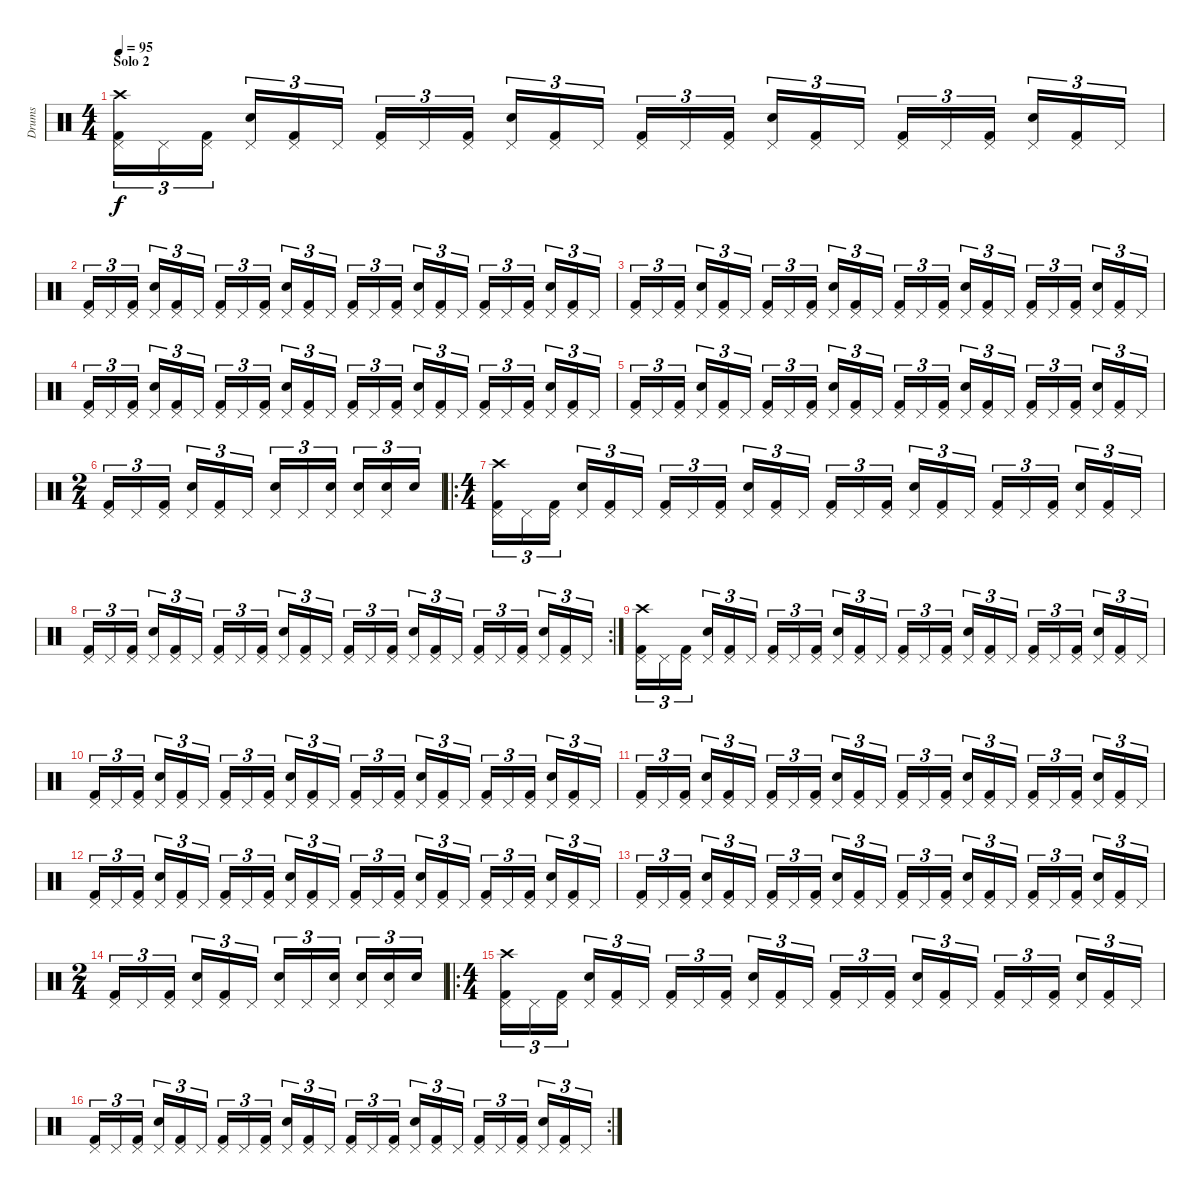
\track ("Drums" "Drums") {instrument percussion}
\staff {score}
\articulation defaults
\ts (4 4)
\section ("" "Solo 2")
\tempo 95
\clef neutral
\ks c
("Kick (hit) 2" "Pedal Hi-Hat (hit)" "Crash high (hit)").16{tu (3 2) dy f} "Pedal Hi-Hat (hit)".16{tu (3 2)} ("Kick (hit) 2" "Pedal Hi-Hat (hit)").16{tu (3 2)} ("Snare (hit) 2" "Pedal Hi-Hat (hit)").16{tu (3 2)} ("Kick (hit) 2" "Pedal Hi-Hat (hit)").16{tu (3 2)} "Pedal Hi-Hat (hit)".16{tu (3 2)} ("Kick (hit) 2" "Pedal Hi-Hat (hit)").16{tu (3 2)} "Pedal Hi-Hat (hit)".16{tu (3 2)} ("Kick (hit) 2" "Pedal Hi-Hat (hit)").16{tu (3 2)} ("Snare (hit) 2" "Pedal Hi-Hat (hit)").16{tu (3 2)} ("Kick (hit) 2" "Pedal Hi-Hat (hit)").16{tu (3 2)} "Pedal Hi-Hat (hit)".16{tu (3 2)} ("Kick (hit) 2" "Pedal Hi-Hat (hit)").16{tu (3 2)} "Pedal Hi-Hat (hit)".16{tu (3 2)} ("Kick (hit) 2" "Pedal Hi-Hat (hit)").16{tu (3 2)} ("Snare (hit) 2" "Pedal Hi-Hat (hit)").16{tu (3 2)} ("Kick (hit) 2" "Pedal Hi-Hat (hit)").16{tu (3 2)} "Pedal Hi-Hat (hit)".16{tu (3 2)} ("Kick (hit) 2" "Pedal Hi-Hat (hit)").16{tu (3 2)} "Pedal Hi-Hat (hit)".16{tu (3 2)} ("Kick (hit) 2" "Pedal Hi-Hat (hit)").16{tu (3 2)} ("Snare (hit) 2" "Pedal Hi-Hat (hit)").16{tu (3 2)} ("Kick (hit) 2" "Pedal Hi-Hat (hit)").16{tu (3 2)} "Pedal Hi-Hat (hit)".16{tu (3 2)} |
("Kick (hit) 2" "Pedal Hi-Hat (hit)").16{tu (3 2)} "Pedal Hi-Hat (hit)".16{tu (3 2)} ("Kick (hit) 2" "Pedal Hi-Hat (hit)").16{tu (3 2)} ("Snare (hit) 2" "Pedal Hi-Hat (hit)").16{tu (3 2)} ("Kick (hit) 2" "Pedal Hi-Hat (hit)").16{tu (3 2)} "Pedal Hi-Hat (hit)".16{tu (3 2)} ("Kick (hit) 2" "Pedal Hi-Hat (hit)").16{tu (3 2)} "Pedal Hi-Hat (hit)".16{tu (3 2)} ("Kick (hit) 2" "Pedal Hi-Hat (hit)").16{tu (3 2)} ("Snare (hit) 2" "Pedal Hi-Hat (hit)").16{tu (3 2)} ("Kick (hit) 2" "Pedal Hi-Hat (hit)").16{tu (3 2)} "Pedal Hi-Hat (hit)".16{tu (3 2)} ("Kick (hit) 2" "Pedal Hi-Hat (hit)").16{tu (3 2)} "Pedal Hi-Hat (hit)".16{tu (3 2)} ("Kick (hit) 2" "Pedal Hi-Hat (hit)").16{tu (3 2)} ("Snare (hit) 2" "Pedal Hi-Hat (hit)").16{tu (3 2)} ("Kick (hit) 2" "Pedal Hi-Hat (hit)").16{tu (3 2)} "Pedal Hi-Hat (hit)".16{tu (3 2)} ("Kick (hit) 2" "Pedal Hi-Hat (hit)").16{tu (3 2)} "Pedal Hi-Hat (hit)".16{tu (3 2)} ("Kick (hit) 2" "Pedal Hi-Hat (hit)").16{tu (3 2)} ("Snare (hit) 2" "Pedal Hi-Hat (hit)").16{tu (3 2)} ("Kick (hit) 2" "Pedal Hi-Hat (hit)").16{tu (3 2)} "Pedal Hi-Hat (hit)".16{tu (3 2)} |
("Kick (hit) 2" "Pedal Hi-Hat (hit)").16{tu (3 2)} "Pedal Hi-Hat (hit)".16{tu (3 2)} ("Kick (hit) 2" "Pedal Hi-Hat (hit)").16{tu (3 2)} ("Snare (hit) 2" "Pedal Hi-Hat (hit)").16{tu (3 2)} ("Kick (hit) 2" "Pedal Hi-Hat (hit)").16{tu (3 2)} "Pedal Hi-Hat (hit)".16{tu (3 2)} ("Kick (hit) 2" "Pedal Hi-Hat (hit)").16{tu (3 2)} "Pedal Hi-Hat (hit)".16{tu (3 2)} ("Kick (hit) 2" "Pedal Hi-Hat (hit)").16{tu (3 2)} ("Snare (hit) 2" "Pedal Hi-Hat (hit)").16{tu (3 2)} ("Kick (hit) 2" "Pedal Hi-Hat (hit)").16{tu (3 2)} "Pedal Hi-Hat (hit)".16{tu (3 2)} ("Kick (hit) 2" "Pedal Hi-Hat (hit)").16{tu (3 2)} "Pedal Hi-Hat (hit)".16{tu (3 2)} ("Kick (hit) 2" "Pedal Hi-Hat (hit)").16{tu (3 2)} ("Snare (hit) 2" "Pedal Hi-Hat (hit)").16{tu (3 2)} ("Kick (hit) 2" "Pedal Hi-Hat (hit)").16{tu (3 2)} "Pedal Hi-Hat (hit)".16{tu (3 2)} ("Kick (hit) 2" "Pedal Hi-Hat (hit)").16{tu (3 2)} "Pedal Hi-Hat (hit)".16{tu (3 2)} ("Kick (hit) 2" "Pedal Hi-Hat (hit)").16{tu (3 2)} ("Snare (hit) 2" "Pedal Hi-Hat (hit)").16{tu (3 2)} ("Kick (hit) 2" "Pedal Hi-Hat (hit)").16{tu (3 2)} "Pedal Hi-Hat (hit)".16{tu (3 2)} |
("Kick (hit) 2" "Pedal Hi-Hat (hit)").16{tu (3 2)} "Pedal Hi-Hat (hit)".16{tu (3 2)} ("Kick (hit) 2" "Pedal Hi-Hat (hit)").16{tu (3 2)} ("Snare (hit) 2" "Pedal Hi-Hat (hit)").16{tu (3 2)} ("Kick (hit) 2" "Pedal Hi-Hat (hit)").16{tu (3 2)} "Pedal Hi-Hat (hit)".16{tu (3 2)} ("Kick (hit) 2" "Pedal Hi-Hat (hit)").16{tu (3 2)} "Pedal Hi-Hat (hit)".16{tu (3 2)} ("Kick (hit) 2" "Pedal Hi-Hat (hit)").16{tu (3 2)} ("Snare (hit) 2" "Pedal Hi-Hat (hit)").16{tu (3 2)} ("Kick (hit) 2" "Pedal Hi-Hat (hit)").16{tu (3 2)} "Pedal Hi-Hat (hit)".16{tu (3 2)} ("Kick (hit) 2" "Pedal Hi-Hat (hit)").16{tu (3 2)} "Pedal Hi-Hat (hit)".16{tu (3 2)} ("Kick (hit) 2" "Pedal Hi-Hat (hit)").16{tu (3 2)} ("Snare (hit) 2" "Pedal Hi-Hat (hit)").16{tu (3 2)} ("Kick (hit) 2" "Pedal Hi-Hat (hit)").16{tu (3 2)} "Pedal Hi-Hat (hit)".16{tu (3 2)} ("Kick (hit) 2" "Pedal Hi-Hat (hit)").16{tu (3 2)} "Pedal Hi-Hat (hit)".16{tu (3 2)} ("Kick (hit) 2" "Pedal Hi-Hat (hit)").16{tu (3 2)} ("Snare (hit) 2" "Pedal Hi-Hat (hit)").16{tu (3 2)} ("Kick (hit) 2" "Pedal Hi-Hat (hit)").16{tu (3 2)} "Pedal Hi-Hat (hit)".16{tu (3 2)} |
("Kick (hit) 2" "Pedal Hi-Hat (hit)").16{tu (3 2)} "Pedal Hi-Hat (hit)".16{tu (3 2)} ("Kick (hit) 2" "Pedal Hi-Hat (hit)").16{tu (3 2)} ("Snare (hit) 2" "Pedal Hi-Hat (hit)").16{tu (3 2)} ("Kick (hit) 2" "Pedal Hi-Hat (hit)").16{tu (3 2)} "Pedal Hi-Hat (hit)".16{tu (3 2)} ("Kick (hit) 2" "Pedal Hi-Hat (hit)").16{tu (3 2)} "Pedal Hi-Hat (hit)".16{tu (3 2)} ("Kick (hit) 2" "Pedal Hi-Hat (hit)").16{tu (3 2)} ("Snare (hit) 2" "Pedal Hi-Hat (hit)").16{tu (3 2)} ("Kick (hit) 2" "Pedal Hi-Hat (hit)").16{tu (3 2)} "Pedal Hi-Hat (hit)".16{tu (3 2)} ("Kick (hit) 2" "Pedal Hi-Hat (hit)").16{tu (3 2)} "Pedal Hi-Hat (hit)".16{tu (3 2)} ("Kick (hit) 2" "Pedal Hi-Hat (hit)").16{tu (3 2)} ("Snare (hit) 2" "Pedal Hi-Hat (hit)").16{tu (3 2)} ("Kick (hit) 2" "Pedal Hi-Hat (hit)").16{tu (3 2)} "Pedal Hi-Hat (hit)".16{tu (3 2)} ("Kick (hit) 2" "Pedal Hi-Hat (hit)").16{tu (3 2)} "Pedal Hi-Hat (hit)".16{tu (3 2)} ("Kick (hit) 2" "Pedal Hi-Hat (hit)").16{tu (3 2)} ("Snare (hit) 2" "Pedal Hi-Hat (hit)").16{tu (3 2)} ("Kick (hit) 2" "Pedal Hi-Hat (hit)").16{tu (3 2)} "Pedal Hi-Hat (hit)".16{tu (3 2)} |
\ts (2 4)
("Kick (hit) 2" "Pedal Hi-Hat (hit)").16{tu (3 2)} "Pedal Hi-Hat (hit)".16{tu (3 2)} ("Kick (hit) 2" "Pedal Hi-Hat (hit)").16{tu (3 2)} ("Snare (hit) 2" "Pedal Hi-Hat (hit)").16{tu (3 2)} ("Kick (hit) 2" "Pedal Hi-Hat (hit)").16{tu (3 2)} "Pedal Hi-Hat (hit)".16{tu (3 2)} ("Snare (hit) 2" "Pedal Hi-Hat (hit)").16{tu (3 2)} "Pedal Hi-Hat (hit)".16{tu (3 2)} ("Snare (hit) 2" "Pedal Hi-Hat (hit)").16{tu (3 2)} ("Snare (hit) 2" "Pedal Hi-Hat (hit)").16{tu (3 2)} ("Snare (hit) 2" "Pedal Hi-Hat (hit)").16{tu (3 2)} "Snare (hit) 2".16{tu (3 2)} |
\ro
\ts (4 4)
("Kick (hit) 2" "Pedal Hi-Hat (hit)" "Crash high (hit)").16{tu (3 2)} "Pedal Hi-Hat (hit)".16{tu (3 2)} ("Kick (hit) 2" "Pedal Hi-Hat (hit)").16{tu (3 2)} ("Snare (hit) 2" "Pedal Hi-Hat (hit)").16{tu (3 2)} ("Kick (hit) 2" "Pedal Hi-Hat (hit)").16{tu (3 2)} "Pedal Hi-Hat (hit)".16{tu (3 2)} ("Kick (hit) 2" "Pedal Hi-Hat (hit)").16{tu (3 2)} "Pedal Hi-Hat (hit)".16{tu (3 2)} ("Kick (hit) 2" "Pedal Hi-Hat (hit)").16{tu (3 2)} ("Snare (hit) 2" "Pedal Hi-Hat (hit)").16{tu (3 2)} ("Kick (hit) 2" "Pedal Hi-Hat (hit)").16{tu (3 2)} "Pedal Hi-Hat (hit)".16{tu (3 2)} ("Kick (hit) 2" "Pedal Hi-Hat (hit)").16{tu (3 2)} "Pedal Hi-Hat (hit)".16{tu (3 2)} ("Kick (hit) 2" "Pedal Hi-Hat (hit)").16{tu (3 2)} ("Snare (hit) 2" "Pedal Hi-Hat (hit)").16{tu (3 2)} ("Kick (hit) 2" "Pedal Hi-Hat (hit)").16{tu (3 2)} "Pedal Hi-Hat (hit)".16{tu (3 2)} ("Kick (hit) 2" "Pedal Hi-Hat (hit)").16{tu (3 2)} "Pedal Hi-Hat (hit)".16{tu (3 2)} ("Kick (hit) 2" "Pedal Hi-Hat (hit)").16{tu (3 2)} ("Snare (hit) 2" "Pedal Hi-Hat (hit)").16{tu (3 2)} ("Kick (hit) 2" "Pedal Hi-Hat (hit)").16{tu (3 2)} "Pedal Hi-Hat (hit)".16{tu (3 2)} |
\rc 2
("Kick (hit) 2" "Pedal Hi-Hat (hit)").16{tu (3 2)} "Pedal Hi-Hat (hit)".16{tu (3 2)} ("Kick (hit) 2" "Pedal Hi-Hat (hit)").16{tu (3 2)} ("Snare (hit) 2" "Pedal Hi-Hat (hit)").16{tu (3 2)} ("Kick (hit) 2" "Pedal Hi-Hat (hit)").16{tu (3 2)} "Pedal Hi-Hat (hit)".16{tu (3 2)} ("Kick (hit) 2" "Pedal Hi-Hat (hit)").16{tu (3 2)} "Pedal Hi-Hat (hit)".16{tu (3 2)} ("Kick (hit) 2" "Pedal Hi-Hat (hit)").16{tu (3 2)} ("Snare (hit) 2" "Pedal Hi-Hat (hit)").16{tu (3 2)} ("Kick (hit) 2" "Pedal Hi-Hat (hit)").16{tu (3 2)} "Pedal Hi-Hat (hit)".16{tu (3 2)} ("Kick (hit) 2" "Pedal Hi-Hat (hit)").16{tu (3 2)} "Pedal Hi-Hat (hit)".16{tu (3 2)} ("Kick (hit) 2" "Pedal Hi-Hat (hit)").16{tu (3 2)} ("Snare (hit) 2" "Pedal Hi-Hat (hit)").16{tu (3 2)} ("Kick (hit) 2" "Pedal Hi-Hat (hit)").16{tu (3 2)} "Pedal Hi-Hat (hit)".16{tu (3 2)} ("Kick (hit) 2" "Pedal Hi-Hat (hit)").16{tu (3 2)} "Pedal Hi-Hat (hit)".16{tu (3 2)} ("Kick (hit) 2" "Pedal Hi-Hat (hit)").16{tu (3 2)} ("Snare (hit) 2" "Pedal Hi-Hat (hit)").16{tu (3 2)} ("Kick (hit) 2" "Pedal Hi-Hat (hit)").16{tu (3 2)} "Pedal Hi-Hat (hit)".16{tu (3 2)} |
("Kick (hit) 2" "Pedal Hi-Hat (hit)" "Crash high (hit)").16{tu (3 2)} "Pedal Hi-Hat (hit)".16{tu (3 2)} ("Kick (hit) 2" "Pedal Hi-Hat (hit)").16{tu (3 2)} ("Snare (hit) 2" "Pedal Hi-Hat (hit)").16{tu (3 2)} ("Kick (hit) 2" "Pedal Hi-Hat (hit)").16{tu (3 2)} "Pedal Hi-Hat (hit)".16{tu (3 2)} ("Kick (hit) 2" "Pedal Hi-Hat (hit)").16{tu (3 2)} "Pedal Hi-Hat (hit)".16{tu (3 2)} ("Kick (hit) 2" "Pedal Hi-Hat (hit)").16{tu (3 2)} ("Snare (hit) 2" "Pedal Hi-Hat (hit)").16{tu (3 2)} ("Kick (hit) 2" "Pedal Hi-Hat (hit)").16{tu (3 2)} "Pedal Hi-Hat (hit)".16{tu (3 2)} ("Kick (hit) 2" "Pedal Hi-Hat (hit)").16{tu (3 2)} "Pedal Hi-Hat (hit)".16{tu (3 2)} ("Kick (hit) 2" "Pedal Hi-Hat (hit)").16{tu (3 2)} ("Snare (hit) 2" "Pedal Hi-Hat (hit)").16{tu (3 2)} ("Kick (hit) 2" "Pedal Hi-Hat (hit)").16{tu (3 2)} "Pedal Hi-Hat (hit)".16{tu (3 2)} ("Kick (hit) 2" "Pedal Hi-Hat (hit)").16{tu (3 2)} "Pedal Hi-Hat (hit)".16{tu (3 2)} ("Kick (hit) 2" "Pedal Hi-Hat (hit)").16{tu (3 2)} ("Snare (hit) 2" "Pedal Hi-Hat (hit)").16{tu (3 2)} ("Kick (hit) 2" "Pedal Hi-Hat (hit)").16{tu (3 2)} "Pedal Hi-Hat (hit)".16{tu (3 2)} |
("Kick (hit) 2" "Pedal Hi-Hat (hit)").16{tu (3 2)} "Pedal Hi-Hat (hit)".16{tu (3 2)} ("Kick (hit) 2" "Pedal Hi-Hat (hit)").16{tu (3 2)} ("Snare (hit) 2" "Pedal Hi-Hat (hit)").16{tu (3 2)} ("Kick (hit) 2" "Pedal Hi-Hat (hit)").16{tu (3 2)} "Pedal Hi-Hat (hit)".16{tu (3 2)} ("Kick (hit) 2" "Pedal Hi-Hat (hit)").16{tu (3 2)} "Pedal Hi-Hat (hit)".16{tu (3 2)} ("Kick (hit) 2" "Pedal Hi-Hat (hit)").16{tu (3 2)} ("Snare (hit) 2" "Pedal Hi-Hat (hit)").16{tu (3 2)} ("Kick (hit) 2" "Pedal Hi-Hat (hit)").16{tu (3 2)} "Pedal Hi-Hat (hit)".16{tu (3 2)} ("Kick (hit) 2" "Pedal Hi-Hat (hit)").16{tu (3 2)} "Pedal Hi-Hat (hit)".16{tu (3 2)} ("Kick (hit) 2" "Pedal Hi-Hat (hit)").16{tu (3 2)} ("Snare (hit) 2" "Pedal Hi-Hat (hit)").16{tu (3 2)} ("Kick (hit) 2" "Pedal Hi-Hat (hit)").16{tu (3 2)} "Pedal Hi-Hat (hit)".16{tu (3 2)} ("Kick (hit) 2" "Pedal Hi-Hat (hit)").16{tu (3 2)} "Pedal Hi-Hat (hit)".16{tu (3 2)} ("Kick (hit) 2" "Pedal Hi-Hat (hit)").16{tu (3 2)} ("Snare (hit) 2" "Pedal Hi-Hat (hit)").16{tu (3 2)} ("Kick (hit) 2" "Pedal Hi-Hat (hit)").16{tu (3 2)} "Pedal Hi-Hat (hit)".16{tu (3 2)} |
("Kick (hit) 2" "Pedal Hi-Hat (hit)").16{tu (3 2)} "Pedal Hi-Hat (hit)".16{tu (3 2)} ("Kick (hit) 2" "Pedal Hi-Hat (hit)").16{tu (3 2)} ("Snare (hit) 2" "Pedal Hi-Hat (hit)").16{tu (3 2)} ("Kick (hit) 2" "Pedal Hi-Hat (hit)").16{tu (3 2)} "Pedal Hi-Hat (hit)".16{tu (3 2)} ("Kick (hit) 2" "Pedal Hi-Hat (hit)").16{tu (3 2)} "Pedal Hi-Hat (hit)".16{tu (3 2)} ("Kick (hit) 2" "Pedal Hi-Hat (hit)").16{tu (3 2)} ("Snare (hit) 2" "Pedal Hi-Hat (hit)").16{tu (3 2)} ("Kick (hit) 2" "Pedal Hi-Hat (hit)").16{tu (3 2)} "Pedal Hi-Hat (hit)".16{tu (3 2)} ("Kick (hit) 2" "Pedal Hi-Hat (hit)").16{tu (3 2)} "Pedal Hi-Hat (hit)".16{tu (3 2)} ("Kick (hit) 2" "Pedal Hi-Hat (hit)").16{tu (3 2)} ("Snare (hit) 2" "Pedal Hi-Hat (hit)").16{tu (3 2)} ("Kick (hit) 2" "Pedal Hi-Hat (hit)").16{tu (3 2)} "Pedal Hi-Hat (hit)".16{tu (3 2)} ("Kick (hit) 2" "Pedal Hi-Hat (hit)").16{tu (3 2)} "Pedal Hi-Hat (hit)".16{tu (3 2)} ("Kick (hit) 2" "Pedal Hi-Hat (hit)").16{tu (3 2)} ("Snare (hit) 2" "Pedal Hi-Hat (hit)").16{tu (3 2)} ("Kick (hit) 2" "Pedal Hi-Hat (hit)").16{tu (3 2)} "Pedal Hi-Hat (hit)".16{tu (3 2)} |
("Kick (hit) 2" "Pedal Hi-Hat (hit)").16{tu (3 2)} "Pedal Hi-Hat (hit)".16{tu (3 2)} ("Kick (hit) 2" "Pedal Hi-Hat (hit)").16{tu (3 2)} ("Snare (hit) 2" "Pedal Hi-Hat (hit)").16{tu (3 2)} ("Kick (hit) 2" "Pedal Hi-Hat (hit)").16{tu (3 2)} "Pedal Hi-Hat (hit)".16{tu (3 2)} ("Kick (hit) 2" "Pedal Hi-Hat (hit)").16{tu (3 2)} "Pedal Hi-Hat (hit)".16{tu (3 2)} ("Kick (hit) 2" "Pedal Hi-Hat (hit)").16{tu (3 2)} ("Snare (hit) 2" "Pedal Hi-Hat (hit)").16{tu (3 2)} ("Kick (hit) 2" "Pedal Hi-Hat (hit)").16{tu (3 2)} "Pedal Hi-Hat (hit)".16{tu (3 2)} ("Kick (hit) 2" "Pedal Hi-Hat (hit)").16{tu (3 2)} "Pedal Hi-Hat (hit)".16{tu (3 2)} ("Kick (hit) 2" "Pedal Hi-Hat (hit)").16{tu (3 2)} ("Snare (hit) 2" "Pedal Hi-Hat (hit)").16{tu (3 2)} ("Kick (hit) 2" "Pedal Hi-Hat (hit)").16{tu (3 2)} "Pedal Hi-Hat (hit)".16{tu (3 2)} ("Kick (hit) 2" "Pedal Hi-Hat (hit)").16{tu (3 2)} "Pedal Hi-Hat (hit)".16{tu (3 2)} ("Kick (hit) 2" "Pedal Hi-Hat (hit)").16{tu (3 2)} ("Snare (hit) 2" "Pedal Hi-Hat (hit)").16{tu (3 2)} ("Kick (hit) 2" "Pedal Hi-Hat (hit)").16{tu (3 2)} "Pedal Hi-Hat (hit)".16{tu (3 2)} |
("Kick (hit) 2" "Pedal Hi-Hat (hit)").16{tu (3 2)} "Pedal Hi-Hat (hit)".16{tu (3 2)} ("Kick (hit) 2" "Pedal Hi-Hat (hit)").16{tu (3 2)} ("Snare (hit) 2" "Pedal Hi-Hat (hit)").16{tu (3 2)} ("Kick (hit) 2" "Pedal Hi-Hat (hit)").16{tu (3 2)} "Pedal Hi-Hat (hit)".16{tu (3 2)} ("Kick (hit) 2" "Pedal Hi-Hat (hit)").16{tu (3 2)} "Pedal Hi-Hat (hit)".16{tu (3 2)} ("Kick (hit) 2" "Pedal Hi-Hat (hit)").16{tu (3 2)} ("Snare (hit) 2" "Pedal Hi-Hat (hit)").16{tu (3 2)} ("Kick (hit) 2" "Pedal Hi-Hat (hit)").16{tu (3 2)} "Pedal Hi-Hat (hit)".16{tu (3 2)} ("Kick (hit) 2" "Pedal Hi-Hat (hit)").16{tu (3 2)} "Pedal Hi-Hat (hit)".16{tu (3 2)} ("Kick (hit) 2" "Pedal Hi-Hat (hit)").16{tu (3 2)} ("Snare (hit) 2" "Pedal Hi-Hat (hit)").16{tu (3 2)} ("Kick (hit) 2" "Pedal Hi-Hat (hit)").16{tu (3 2)} "Pedal Hi-Hat (hit)".16{tu (3 2)} ("Kick (hit) 2" "Pedal Hi-Hat (hit)").16{tu (3 2)} "Pedal Hi-Hat (hit)".16{tu (3 2)} ("Kick (hit) 2" "Pedal Hi-Hat (hit)").16{tu (3 2)} ("Snare (hit) 2" "Pedal Hi-Hat (hit)").16{tu (3 2)} ("Kick (hit) 2" "Pedal Hi-Hat (hit)").16{tu (3 2)} "Pedal Hi-Hat (hit)".16{tu (3 2)} |
\ts (2 4)
("Kick (hit) 2" "Pedal Hi-Hat (hit)").16{tu (3 2)} "Pedal Hi-Hat (hit)".16{tu (3 2)} ("Kick (hit) 2" "Pedal Hi-Hat (hit)").16{tu (3 2)} ("Snare (hit) 2" "Pedal Hi-Hat (hit)").16{tu (3 2)} ("Kick (hit) 2" "Pedal Hi-Hat (hit)").16{tu (3 2)} "Pedal Hi-Hat (hit)".16{tu (3 2)} ("Snare (hit) 2" "Pedal Hi-Hat (hit)").16{tu (3 2)} "Pedal Hi-Hat (hit)".16{tu (3 2)} ("Snare (hit) 2" "Pedal Hi-Hat (hit)").16{tu (3 2)} ("Snare (hit) 2" "Pedal Hi-Hat (hit)").16{tu (3 2)} ("Snare (hit) 2" "Pedal Hi-Hat (hit)").16{tu (3 2)} "Snare (hit) 2".16{tu (3 2)} |
\ro
\ts (4 4)
("Kick (hit) 2" "Pedal Hi-Hat (hit)" "Crash high (hit)").16{tu (3 2)} "Pedal Hi-Hat (hit)".16{tu (3 2)} ("Kick (hit) 2" "Pedal Hi-Hat (hit)").16{tu (3 2)} ("Snare (hit) 2" "Pedal Hi-Hat (hit)").16{tu (3 2)} ("Kick (hit) 2" "Pedal Hi-Hat (hit)").16{tu (3 2)} "Pedal Hi-Hat (hit)".16{tu (3 2)} ("Kick (hit) 2" "Pedal Hi-Hat (hit)").16{tu (3 2)} "Pedal Hi-Hat (hit)".16{tu (3 2)} ("Kick (hit) 2" "Pedal Hi-Hat (hit)").16{tu (3 2)} ("Snare (hit) 2" "Pedal Hi-Hat (hit)").16{tu (3 2)} ("Kick (hit) 2" "Pedal Hi-Hat (hit)").16{tu (3 2)} "Pedal Hi-Hat (hit)".16{tu (3 2)} ("Kick (hit) 2" "Pedal Hi-Hat (hit)").16{tu (3 2)} "Pedal Hi-Hat (hit)".16{tu (3 2)} ("Kick (hit) 2" "Pedal Hi-Hat (hit)").16{tu (3 2)} ("Snare (hit) 2" "Pedal Hi-Hat (hit)").16{tu (3 2)} ("Kick (hit) 2" "Pedal Hi-Hat (hit)").16{tu (3 2)} "Pedal Hi-Hat (hit)".16{tu (3 2)} ("Kick (hit) 2" "Pedal Hi-Hat (hit)").16{tu (3 2)} "Pedal Hi-Hat (hit)".16{tu (3 2)} ("Kick (hit) 2" "Pedal Hi-Hat (hit)").16{tu (3 2)} ("Snare (hit) 2" "Pedal Hi-Hat (hit)").16{tu (3 2)} ("Kick (hit) 2" "Pedal Hi-Hat (hit)").16{tu (3 2)} "Pedal Hi-Hat (hit)".16{tu (3 2)} |
\rc 2
("Kick (hit) 2" "Pedal Hi-Hat (hit)").16{tu (3 2)} "Pedal Hi-Hat (hit)".16{tu (3 2)} ("Kick (hit) 2" "Pedal Hi-Hat (hit)").16{tu (3 2)} ("Snare (hit) 2" "Pedal Hi-Hat (hit)").16{tu (3 2)} ("Kick (hit) 2" "Pedal Hi-Hat (hit)").16{tu (3 2)} "Pedal Hi-Hat (hit)".16{tu (3 2)} ("Kick (hit) 2" "Pedal Hi-Hat (hit)").16{tu (3 2)} "Pedal Hi-Hat (hit)".16{tu (3 2)} ("Kick (hit) 2" "Pedal Hi-Hat (hit)").16{tu (3 2)} ("Snare (hit) 2" "Pedal Hi-Hat (hit)").16{tu (3 2)} ("Kick (hit) 2" "Pedal Hi-Hat (hit)").16{tu (3 2)} "Pedal Hi-Hat (hit)".16{tu (3 2)} ("Kick (hit) 2" "Pedal Hi-Hat (hit)").16{tu (3 2)} "Pedal Hi-Hat (hit)".16{tu (3 2)} ("Kick (hit) 2" "Pedal Hi-Hat (hit)").16{tu (3 2)} ("Snare (hit) 2" "Pedal Hi-Hat (hit)").16{tu (3 2)} ("Kick (hit) 2" "Pedal Hi-Hat (hit)").16{tu (3 2)} "Pedal Hi-Hat (hit)".16{tu (3 2)} ("Kick (hit) 2" "Pedal Hi-Hat (hit)").16{tu (3 2)} "Pedal Hi-Hat (hit)".16{tu (3 2)} ("Kick (hit) 2" "Pedal Hi-Hat (hit)").16{tu (3 2)} ("Snare (hit) 2" "Pedal Hi-Hat (hit)").16{tu (3 2)} ("Kick (hit) 2" "Pedal Hi-Hat (hit)").16{tu (3 2)} "Pedal Hi-Hat (hit)".16{tu (3 2)}
